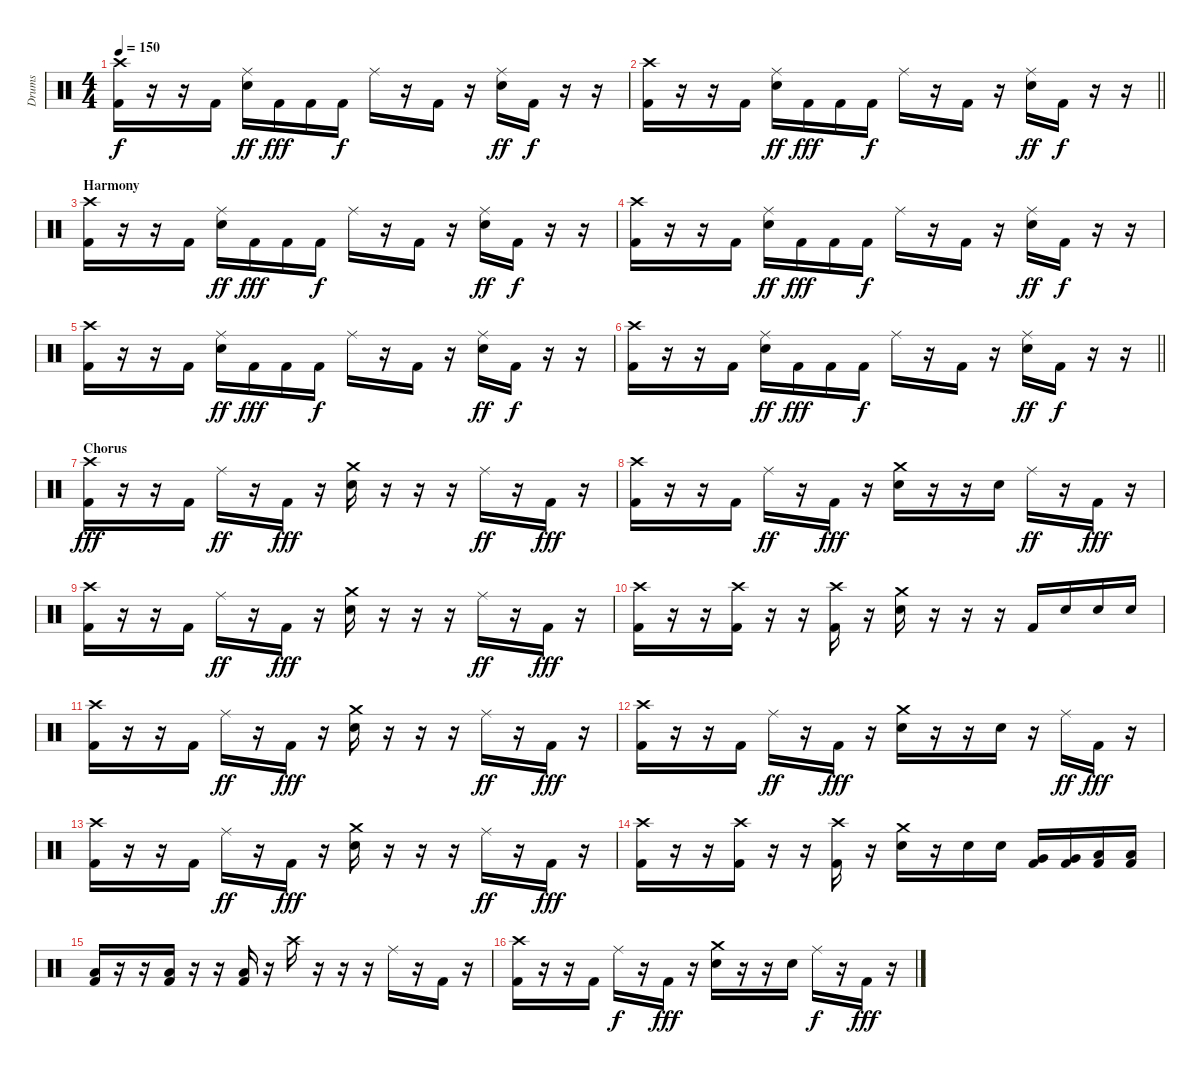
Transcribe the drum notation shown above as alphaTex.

\track ("Drums" "Drums") {instrument percussion}
\staff {score}
\articulation defaults
\ts (4 4)
\tempo 150
\clef neutral
\ks c
("Crash high (hit)" "Kick (hit) 2").16{dy f} r.16 r.16 "Kick (hit) 2".16 ("Ride (middle)" "Electric Snare (hit)").16{dy ff} "Kick (hit) 2".16{dy fff} "Kick (hit) 2".16 "Kick (hit) 2".16{dy f} "Ride (middle)".16 r.16 "Kick (hit) 2".16 r.16 ("Ride (middle)" "Electric Snare (hit)").16{dy ff} "Kick (hit) 2".16{dy f} r.16 r.16 |
\barLineRight lightlight
("Crash high (hit)" "Kick (hit) 2").16 r.16 r.16 "Kick (hit) 2".16 ("Ride (middle)" "Electric Snare (hit)").16{dy ff} "Kick (hit) 2".16{dy fff} "Kick (hit) 2".16 "Kick (hit) 2".16{dy f} "Ride (middle)".16 r.16 "Kick (hit) 2".16 r.16 ("Ride (middle)" "Electric Snare (hit)").16{dy ff} "Kick (hit) 2".16{dy f} r.16 r.16 |
\section ("" "Harmony")
("Crash high (hit)" "Kick (hit) 2").16 r.16 r.16 "Kick (hit) 2".16 ("Ride (middle)" "Electric Snare (hit)").16{dy ff} "Kick (hit) 2".16{dy fff} "Kick (hit) 2".16 "Kick (hit) 2".16{dy f} "Ride (middle)".16 r.16 "Kick (hit) 2".16 r.16 ("Ride (middle)" "Electric Snare (hit)").16{dy ff} "Kick (hit) 2".16{dy f} r.16 r.16 |
("Crash high (hit)" "Kick (hit) 2").16 r.16 r.16 "Kick (hit) 2".16 ("Ride (middle)" "Electric Snare (hit)").16{dy ff} "Kick (hit) 2".16{dy fff} "Kick (hit) 2".16 "Kick (hit) 2".16{dy f} "Ride (middle)".16 r.16 "Kick (hit) 2".16 r.16 ("Ride (middle)" "Electric Snare (hit)").16{dy ff} "Kick (hit) 2".16{dy f} r.16 r.16 |
("Crash high (hit)" "Kick (hit) 2").16 r.16 r.16 "Kick (hit) 2".16 ("Ride (middle)" "Electric Snare (hit)").16{dy ff} "Kick (hit) 2".16{dy fff} "Kick (hit) 2".16 "Kick (hit) 2".16{dy f} "Ride (middle)".16 r.16 "Kick (hit) 2".16 r.16 ("Ride (middle)" "Electric Snare (hit)").16{dy ff} "Kick (hit) 2".16{dy f} r.16 r.16 |
\barLineRight lightlight
("Crash high (hit)" "Kick (hit) 2").16 r.16 r.16 "Kick (hit) 2".16 ("Ride (middle)" "Electric Snare (hit)").16{dy ff} "Kick (hit) 2".16{dy fff} "Kick (hit) 2".16 "Kick (hit) 2".16{dy f} "Ride (middle)".16 r.16 "Kick (hit) 2".16 r.16 ("Ride (middle)" "Electric Snare (hit)").16{dy ff} "Kick (hit) 2".16{dy f} r.16 r.16 |
\section ("" "Chorus")
("Crash high (hit)" "Kick (hit) 2").16{dy fff} r.16 r.16 "Kick (hit) 2".16 "Ride (middle)".16{dy ff} r.16 "Kick (hit) 2".16{dy fff} r.16 ("Crash medium (hit)" "Electric Snare (hit)").16 r.16 r.16 r.16 "Ride (middle)".16{dy ff} r.16 "Kick (hit) 2".16{dy fff} r.16 |
("Crash high (hit)" "Kick (hit) 2").16 r.16 r.16 "Kick (hit) 2".16 "Ride (middle)".16{dy ff} r.16 "Kick (hit) 2".16{dy fff} r.16 ("Crash medium (hit)" "Electric Snare (hit)").16 r.16 r.16 "Electric Snare (hit)".16 "Ride (middle)".16{dy ff} r.16 "Kick (hit) 2".16{dy fff} r.16 |
("Crash high (hit)" "Kick (hit) 2").16 r.16 r.16 "Kick (hit) 2".16 "Ride (middle)".16{dy ff} r.16 "Kick (hit) 2".16{dy fff} r.16 ("Crash medium (hit)" "Electric Snare (hit)").16 r.16 r.16 r.16 "Ride (middle)".16{dy ff} r.16 "Kick (hit) 2".16{dy fff} r.16 |
("Crash high (hit)" "Kick (hit) 2").16 r.16 r.16 ("Crash high (hit)" "Kick (hit) 2").16 r.16 r.16 ("Crash high (hit)" "Kick (hit) 2").16 r.16 ("Crash medium (hit)" "Electric Snare (hit)").16 r.16 r.16 r.16 "Kick (hit) 2".16 "Electric Snare (hit)".16 "Electric Snare (hit)".16 "Electric Snare (hit)".16 |
("Crash high (hit)" "Kick (hit) 2").16 r.16 r.16 "Kick (hit) 2".16 "Ride (middle)".16{dy ff} r.16 "Kick (hit) 2".16{dy fff} r.16 ("Crash medium (hit)" "Electric Snare (hit)").16 r.16 r.16 r.16 "Ride (middle)".16{dy ff} r.16 "Kick (hit) 2".16{dy fff} r.16 |
("Crash high (hit)" "Kick (hit) 2").16 r.16 r.16 "Kick (hit) 2".16 "Ride (middle)".16{dy ff} r.16 "Kick (hit) 2".16{dy fff} r.16 ("Crash medium (hit)" "Electric Snare (hit)").16 r.16 r.16 "Electric Snare (hit)".16 r.16 "Ride (middle)".16{dy ff} "Kick (hit) 2".16{dy fff} r.16 |
("Crash high (hit)" "Kick (hit) 2").16 r.16 r.16 "Kick (hit) 2".16 "Ride (middle)".16{dy ff} r.16 "Kick (hit) 2".16{dy fff} r.16 ("Crash medium (hit)" "Electric Snare (hit)").16 r.16 r.16 r.16 "Ride (middle)".16{dy ff} r.16 "Kick (hit) 2".16{dy fff} r.16 |
("Crash high (hit)" "Kick (hit) 2").16 r.16 r.16 ("Crash high (hit)" "Kick (hit) 2").16 r.16 r.16 ("Crash high (hit)" "Kick (hit) 2").16 r.16 ("Crash medium (hit)" "Electric Snare (hit)").16 r.16 "Electric Snare (hit)".16 "Electric Snare (hit)".16 ("Very Low Tom (hit)" "Kick (hit) 2").16 ("Very Low Tom (hit)" "Kick (hit) 2").16 ("Low Floor Tom (hit)" "Kick (hit) 2").16 ("Low Floor Tom (hit)" "Kick (hit) 2").16 |
("Low Floor Tom (hit)" "Kick (hit) 2").16 r.16 r.16 ("Low Floor Tom (hit)" "Kick (hit) 2").16 r.16 r.16 ("Low Floor Tom (hit)" "Kick (hit) 2").16 r.16 "Crash high (hit)".16 r.16 r.16 r.16 "Ride (middle)".16 r.16 "Kick (hit) 2".16 r.16 |
("Crash high (hit)" "Kick (hit) 2").16 r.16 r.16 "Kick (hit) 2".16 "Ride (middle)".16{dy f} r.16 "Kick (hit) 2".16{dy fff} r.16 ("Crash medium (hit)" "Electric Snare (hit)").16 r.16 r.16 "Electric Snare (hit)".16 "Ride (middle)".16{dy f} r.16 "Kick (hit) 2".16{dy fff} r.16
